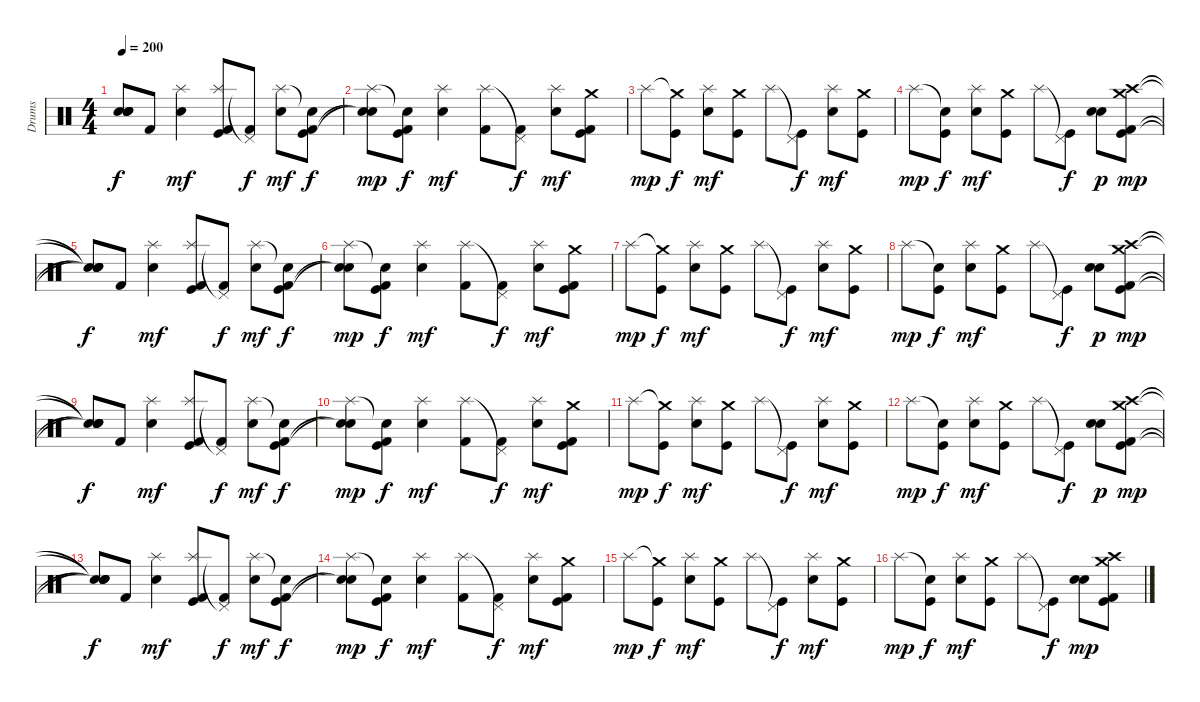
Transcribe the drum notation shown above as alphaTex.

\track ("Drums" "Drums") {instrument percussion}
\staff {score}
\articulation defaults
\ts (4 4)
\tempo 200
\clef neutral
\ks c
("Snare (hit)"{t} "Snare (hit)"{t} "Snare (hit)"{t} "Snare (hit)"{t}).8{dy f} "Kick (hit) 2".8 ("Splash (hit)" "Snare (hit) 2").4{dy mf} ("Splash (hit)" "Kick (hit)" "Kick (hit) 2").8 ("Pedal Hi-Hat (hit)"{t} "Kick (hit) 2").8{dy f} ("Splash (hit)" "Snare (hit) 2").8{dy mf} ("Snare (hit)"{t} "Kick (hit)" "Kick (hit) 2").8{dy f} |
("Splash (hit)" "Snare (hit)"{t} "Snare (hit)"{t}).8{dy mp} ("Snare (hit)"{t} "Kick (hit)" "Kick (hit) 2").8{dy f} ("Splash (hit)" "Snare (hit) 2").4{dy mf} ("Splash (hit)" "Kick (hit) 2").8 ("Pedal Hi-Hat (hit)"{t} "Kick (hit) 2").8{dy f} ("Splash (hit)" "Snare (hit) 2").8{dy mf} ("Crash medium (hit)" "Kick (hit)" "Kick (hit) 2").8 |
"Splash (hit)".8{dy mp} ("Crash medium (hit)"{t} "Kick (hit)").8{dy f} ("Splash (hit)" "Snare (hit) 2").8{dy mf} ("Crash medium (hit)" "Kick (hit)").8 "Splash (hit)".8 ("Pedal Hi-Hat (hit)"{t} "Kick (hit)").8{dy f} ("Splash (hit)" "Snare (hit) 2").8{dy mf} ("Crash medium (hit)" "Kick (hit)").8 |
"Splash (hit)".8{dy mp} ("Snare (hit)"{t} "Kick (hit)").8{dy f} ("Splash (hit)" "Snare (hit) 2").8{dy mf} ("Crash medium (hit)" "Kick (hit)").8 "Splash (hit)".8 ("Pedal Hi-Hat (hit)"{t} "Kick (hit)").8{dy f} ("Snare (hit) 2" "Electric Snare (hit)").8{dy p} ("Crash high (hit)" "Crash medium (hit)" "Kick (hit)" "Kick (hit) 2").8{dy mp} |
("Snare (hit)"{t} "Snare (hit)"{t} "Snare (hit)"{t} "Snare (hit)"{t}).8{dy f} "Kick (hit) 2".8 ("Splash (hit)" "Snare (hit) 2").4{dy mf} ("Splash (hit)" "Kick (hit)" "Kick (hit) 2").8 ("Pedal Hi-Hat (hit)"{t} "Kick (hit) 2").8{dy f} ("Splash (hit)" "Snare (hit) 2").8{dy mf} ("Snare (hit)"{t} "Kick (hit)" "Kick (hit) 2").8{dy f} |
("Splash (hit)" "Snare (hit)"{t} "Snare (hit)"{t}).8{dy mp} ("Snare (hit)"{t} "Kick (hit)" "Kick (hit) 2").8{dy f} ("Splash (hit)" "Snare (hit) 2").4{dy mf} ("Splash (hit)" "Kick (hit) 2").8 ("Pedal Hi-Hat (hit)"{t} "Kick (hit) 2").8{dy f} ("Splash (hit)" "Snare (hit) 2").8{dy mf} ("Crash medium (hit)" "Kick (hit)" "Kick (hit) 2").8 |
"Splash (hit)".8{dy mp} ("Crash medium (hit)"{t} "Kick (hit)").8{dy f} ("Splash (hit)" "Snare (hit) 2").8{dy mf} ("Crash medium (hit)" "Kick (hit)").8 "Splash (hit)".8 ("Pedal Hi-Hat (hit)"{t} "Kick (hit)").8{dy f} ("Splash (hit)" "Snare (hit) 2").8{dy mf} ("Crash medium (hit)" "Kick (hit)").8 |
"Splash (hit)".8{dy mp} ("Snare (hit)"{t} "Kick (hit)").8{dy f} ("Splash (hit)" "Snare (hit) 2").8{dy mf} ("Crash medium (hit)" "Kick (hit)").8 "Splash (hit)".8 ("Pedal Hi-Hat (hit)"{t} "Kick (hit)").8{dy f} ("Snare (hit) 2" "Electric Snare (hit)").8{dy p} ("Crash high (hit)" "Crash medium (hit)" "Kick (hit)" "Kick (hit) 2").8{dy mp} |
("Snare (hit)"{t} "Snare (hit)"{t} "Snare (hit)"{t} "Snare (hit)"{t}).8{dy f} "Kick (hit) 2".8 ("Splash (hit)" "Snare (hit) 2").4{dy mf} ("Splash (hit)" "Kick (hit)" "Kick (hit) 2").8 ("Pedal Hi-Hat (hit)"{t} "Kick (hit) 2").8{dy f} ("Splash (hit)" "Snare (hit) 2").8{dy mf} ("Snare (hit)"{t} "Kick (hit)" "Kick (hit) 2").8{dy f} |
("Splash (hit)" "Snare (hit)"{t} "Snare (hit)"{t}).8{dy mp} ("Snare (hit)"{t} "Kick (hit)" "Kick (hit) 2").8{dy f} ("Splash (hit)" "Snare (hit) 2").4{dy mf} ("Splash (hit)" "Kick (hit) 2").8 ("Pedal Hi-Hat (hit)"{t} "Kick (hit) 2").8{dy f} ("Splash (hit)" "Snare (hit) 2").8{dy mf} ("Crash medium (hit)" "Kick (hit)" "Kick (hit) 2").8 |
"Splash (hit)".8{dy mp} ("Crash medium (hit)"{t} "Kick (hit)").8{dy f} ("Splash (hit)" "Snare (hit) 2").8{dy mf} ("Crash medium (hit)" "Kick (hit)").8 "Splash (hit)".8 ("Pedal Hi-Hat (hit)"{t} "Kick (hit)").8{dy f} ("Splash (hit)" "Snare (hit) 2").8{dy mf} ("Crash medium (hit)" "Kick (hit)").8 |
"Splash (hit)".8{dy mp} ("Snare (hit)"{t} "Kick (hit)").8{dy f} ("Splash (hit)" "Snare (hit) 2").8{dy mf} ("Crash medium (hit)" "Kick (hit)").8 "Splash (hit)".8 ("Pedal Hi-Hat (hit)"{t} "Kick (hit)").8{dy f} ("Snare (hit) 2" "Electric Snare (hit)").8{dy p} ("Crash high (hit)" "Crash medium (hit)" "Kick (hit)" "Kick (hit) 2").8{dy mp} |
("Snare (hit)"{t} "Snare (hit)"{t} "Snare (hit)"{t} "Snare (hit)"{t}).8{dy f} "Kick (hit) 2".8 ("Splash (hit)" "Snare (hit) 2").4{dy mf} ("Splash (hit)" "Kick (hit)" "Kick (hit) 2").8 ("Pedal Hi-Hat (hit)"{t} "Kick (hit) 2").8{dy f} ("Splash (hit)" "Snare (hit) 2").8{dy mf} ("Snare (hit)"{t} "Kick (hit)" "Kick (hit) 2").8{dy f} |
("Splash (hit)" "Snare (hit)"{t} "Snare (hit)"{t}).8{dy mp} ("Snare (hit)"{t} "Kick (hit)" "Kick (hit) 2").8{dy f} ("Splash (hit)" "Snare (hit) 2").4{dy mf} ("Splash (hit)" "Kick (hit) 2").8 ("Pedal Hi-Hat (hit)"{t} "Kick (hit) 2").8{dy f} ("Splash (hit)" "Snare (hit) 2").8{dy mf} ("Crash medium (hit)" "Kick (hit)" "Kick (hit) 2").8 |
"Splash (hit)".8{dy mp} ("Crash medium (hit)"{t} "Kick (hit)").8{dy f} ("Splash (hit)" "Snare (hit) 2").8{dy mf} ("Crash medium (hit)" "Kick (hit)").8 "Splash (hit)".8 ("Pedal Hi-Hat (hit)"{t} "Kick (hit)").8{dy f} ("Splash (hit)" "Snare (hit) 2").8{dy mf} ("Crash medium (hit)" "Kick (hit)").8 |
"Splash (hit)".8{dy mp} ("Snare (hit)"{t} "Kick (hit)").8{dy f} ("Splash (hit)" "Snare (hit) 2").8{dy mf} ("Crash medium (hit)" "Kick (hit)").8 "Splash (hit)".8 ("Pedal Hi-Hat (hit)"{t} "Kick (hit)").8{dy f} ("Snare (hit) 2" "Electric Snare (hit)").8{dy mp} ("Crash high (hit)" "Crash medium (hit)" "Kick (hit)" "Kick (hit) 2").8
